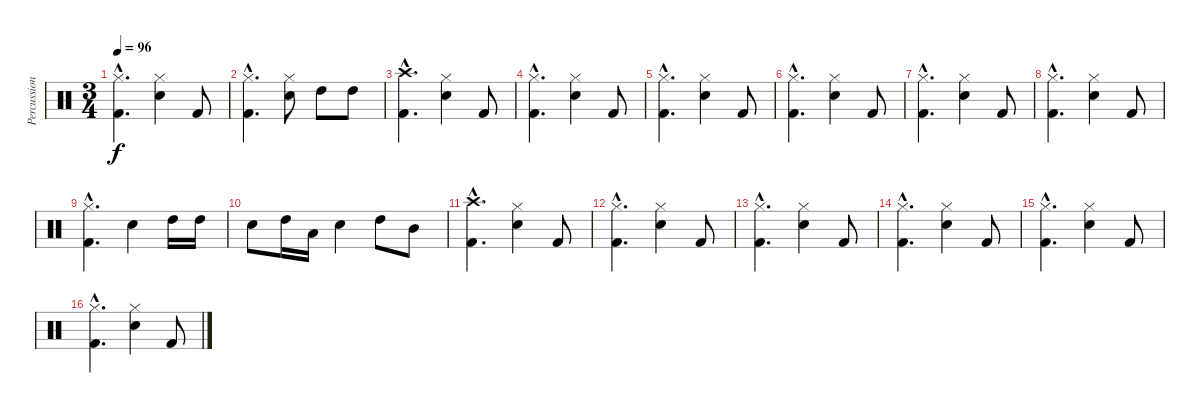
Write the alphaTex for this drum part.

\track ("Percussions" "Percussion") {instrument percussion}
\staff {score}
\articulation defaults
\ts (3 4)
\tempo 96
\clef neutral
\ks c
("Hi-Hat (closed)"{hac} "Kick (hit) 2"{hac}).4{d dy f} ("Hi-Hat (closed)" "Snare (hit) 2").4 "Kick (hit) 2".8 |
("Hi-Hat (closed)"{hac} "Kick (hit) 2"{hac}).4{d} ("Hi-Hat (closed)" "Snare (hit) 2").8 "High Tom (hit)".8 "High Tom (hit)".8 |
("Crash high (hit)"{hac} "Kick (hit) 2"{hac}).4{d} ("Hi-Hat (closed)" "Snare (hit) 2").4 "Kick (hit) 2".8 |
("Hi-Hat (closed)"{hac} "Kick (hit) 2"{hac}).4{d} ("Hi-Hat (closed)" "Snare (hit) 2").4 "Kick (hit) 2".8 |
("Hi-Hat (closed)"{hac} "Kick (hit) 2"{hac}).4{d} ("Hi-Hat (closed)" "Snare (hit) 2").4 "Kick (hit) 2".8 |
("Hi-Hat (closed)"{hac} "Kick (hit) 2"{hac}).4{d} ("Hi-Hat (closed)" "Snare (hit) 2").4 "Kick (hit) 2".8 |
("Hi-Hat (closed)"{hac} "Kick (hit) 2"{hac}).4{d} ("Hi-Hat (closed)" "Snare (hit) 2").4 "Kick (hit) 2".8 |
("Hi-Hat (closed)"{hac} "Kick (hit) 2"{hac}).4{d} ("Hi-Hat (closed)" "Snare (hit) 2").4 "Kick (hit) 2".8 |
("Hi-Hat (closed)"{hac} "Kick (hit) 2"{hac}).4{d} "Snare (hit) 2".4 "High Tom (hit)".16 "High Tom (hit)".16 |
"Snare (hit) 2".8 "High Tom (hit)".16 "Low Tom (hit)".16 "Snare (hit) 2".4 "High Tom (hit)".8 "Mid Tom (hit)".8 |
("Crash high (hit)"{hac} "Kick (hit) 2"{hac}).4{d} ("Hi-Hat (closed)" "Snare (hit) 2").4 "Kick (hit) 2".8 |
("Hi-Hat (closed)"{hac} "Kick (hit) 2"{hac}).4{d} ("Hi-Hat (closed)" "Snare (hit) 2").4 "Kick (hit) 2".8 |
("Hi-Hat (closed)"{hac} "Kick (hit) 2"{hac}).4{d} ("Hi-Hat (closed)" "Snare (hit) 2").4 "Kick (hit) 2".8 |
("Hi-Hat (closed)"{hac} "Kick (hit) 2"{hac}).4{d} ("Hi-Hat (closed)" "Snare (hit) 2").4 "Kick (hit) 2".8 |
("Hi-Hat (closed)"{hac} "Kick (hit) 2"{hac}).4{d} ("Hi-Hat (closed)" "Snare (hit) 2").4 "Kick (hit) 2".8 |
("Hi-Hat (closed)"{hac} "Kick (hit) 2"{hac}).4{d} ("Hi-Hat (closed)" "Snare (hit) 2").4 "Kick (hit) 2".8
